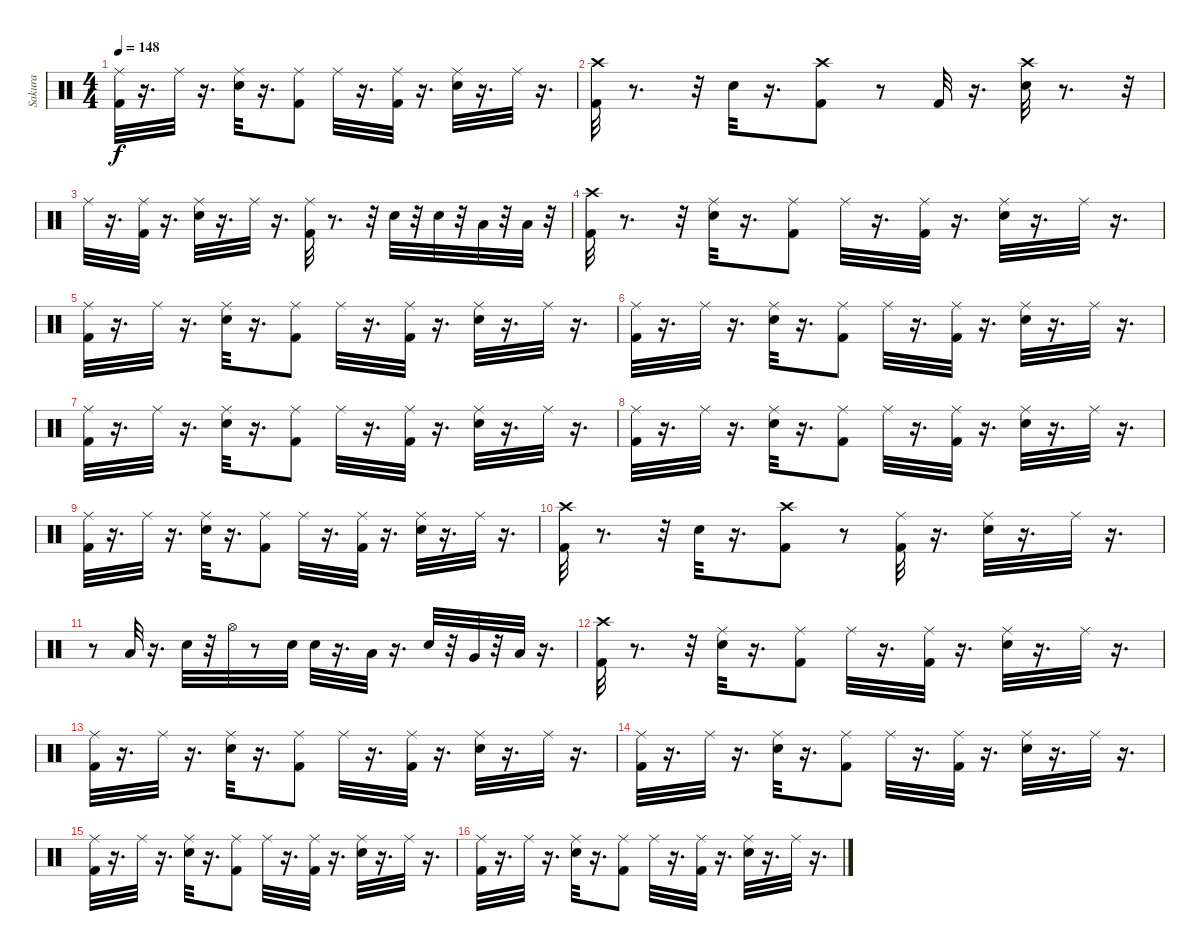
\track ("Sakura" "Sakura") {instrument percussion}
\staff {score}
\articulation defaults
\ts (4 4)
\tempo 148
\clef neutral
\ks c
("Ride (middle)" "Kick (hit) 2").32{dy f} r.16{d} "Ride (middle)".32 r.16{d} ("Snare (hit) 2" "Ride (middle)").32 r.16{d} ("Ride (middle)" "Kick (hit) 2").8 "Ride (middle)".32 r.16{d} ("Kick (hit) 2" "Ride (middle)").32 r.16{d} ("Ride (middle)" "Snare (hit) 2").32 r.16{d} "Ride (middle)".32 r.16{d} |
("Crash high (hit)" "Kick (hit) 2").32 r.8{d} r.32 "Snare (hit) 2".32 r.16{d} ("Crash high (hit)" "Kick (hit) 2").8 r.8 "Kick (hit) 2".32 r.16{d} ("Crash high (hit)" "Snare (hit) 2").32 r.8{d} r.32 |
"Ride (middle)".32 r.16{d} ("Ride (middle)" "Kick (hit) 2").32 r.16{d} ("Ride (middle)" "Snare (hit) 2").32 r.16{d} "Ride (middle)".32 r.16{d} ("Ride (middle)" "Kick (hit) 2").32 r.8{d} r.32 "Snare (hit) 2".32 r.32 "Snare (hit) 2".32 r.32 "Low Tom (hit)".32 r.32 "Low Tom (hit)".32 r.32 |
("Crash high (hit)" "Kick (hit) 2").32 r.8{d} r.32 ("Snare (hit) 2" "Ride (middle)").32 r.16{d} ("Ride (middle)" "Kick (hit) 2").8 "Ride (middle)".32 r.16{d} ("Kick (hit) 2" "Ride (middle)").32 r.16{d} ("Ride (middle)" "Snare (hit) 2").32 r.16{d} "Ride (middle)".32 r.16{d} |
("Ride (middle)" "Kick (hit) 2").32 r.16{d} "Ride (middle)".32 r.16{d} ("Snare (hit) 2" "Ride (middle)").32 r.16{d} ("Ride (middle)" "Kick (hit) 2").8 "Ride (middle)".32 r.16{d} ("Kick (hit) 2" "Ride (middle)").32 r.16{d} ("Ride (middle)" "Snare (hit) 2").32 r.16{d} "Ride (middle)".32 r.16{d} |
("Ride (middle)" "Kick (hit) 2").32 r.16{d} "Ride (middle)".32 r.16{d} ("Snare (hit) 2" "Ride (middle)").32 r.16{d} ("Ride (middle)" "Kick (hit) 2").8 "Ride (middle)".32 r.16{d} ("Kick (hit) 2" "Ride (middle)").32 r.16{d} ("Ride (middle)" "Snare (hit) 2").32 r.16{d} "Ride (middle)".32 r.16{d} |
("Ride (middle)" "Kick (hit) 2").32 r.16{d} "Ride (middle)".32 r.16{d} ("Snare (hit) 2" "Ride (middle)").32 r.16{d} ("Ride (middle)" "Kick (hit) 2").8 "Ride (middle)".32 r.16{d} ("Kick (hit) 2" "Ride (middle)").32 r.16{d} ("Ride (middle)" "Snare (hit) 2").32 r.16{d} "Ride (middle)".32 r.16{d} |
("Ride (middle)" "Kick (hit) 2").32 r.16{d} "Ride (middle)".32 r.16{d} ("Snare (hit) 2" "Ride (middle)").32 r.16{d} ("Ride (middle)" "Kick (hit) 2").8 "Ride (middle)".32 r.16{d} ("Kick (hit) 2" "Ride (middle)").32 r.16{d} ("Ride (middle)" "Snare (hit) 2").32 r.16{d} "Ride (middle)".32 r.16{d} |
("Ride (middle)" "Kick (hit) 2").32 r.16{d} "Ride (middle)".32 r.16{d} ("Snare (hit) 2" "Ride (middle)").32 r.16{d} ("Ride (middle)" "Kick (hit) 2").8 "Ride (middle)".32 r.16{d} ("Kick (hit) 2" "Ride (middle)").32 r.16{d} ("Ride (middle)" "Snare (hit) 2").32 r.16{d} "Ride (middle)".32 r.16{d} |
("Crash high (hit)" "Kick (hit) 2").32 r.8{d} r.32 "Snare (hit) 2".32 r.16{d} ("Crash high (hit)" "Kick (hit) 2").8 r.8 ("Ride (middle)" "Kick (hit) 2").32 r.16{d} ("Ride (middle)" "Snare (hit) 2").32 r.16{d} "Ride (middle)".32 r.16{d} |
r.8 "Low Tom (hit)".32 r.16{d} "Snare (hit) 2".32 r.32 "Hi-Hat (open)".32 r.8 "Snare (hit) 2".32 "Snare (hit) 2".32 r.16{d} "Low Tom (hit)".32 r.16{d} "Snare (hit) 2".32 r.32 "Very Low Tom (hit)".32 r.32 "Low Floor Tom (hit)".32 r.16{d} |
("Crash high (hit)" "Kick (hit) 2").32 r.8{d} r.32 ("Snare (hit) 2" "Ride (middle)").32 r.16{d} ("Ride (middle)" "Kick (hit) 2").8 "Ride (middle)".32 r.16{d} ("Kick (hit) 2" "Ride (middle)").32 r.16{d} ("Ride (middle)" "Snare (hit) 2").32 r.16{d} "Ride (middle)".32 r.16{d} |
("Ride (middle)" "Kick (hit) 2").32 r.16{d} "Ride (middle)".32 r.16{d} ("Snare (hit) 2" "Ride (middle)").32 r.16{d} ("Ride (middle)" "Kick (hit) 2").8 "Ride (middle)".32 r.16{d} ("Kick (hit) 2" "Ride (middle)").32 r.16{d} ("Ride (middle)" "Snare (hit) 2").32 r.16{d} "Ride (middle)".32 r.16{d} |
("Ride (middle)" "Kick (hit) 2").32 r.16{d} "Ride (middle)".32 r.16{d} ("Snare (hit) 2" "Ride (middle)").32 r.16{d} ("Ride (middle)" "Kick (hit) 2").8 "Ride (middle)".32 r.16{d} ("Kick (hit) 2" "Ride (middle)").32 r.16{d} ("Ride (middle)" "Snare (hit) 2").32 r.16{d} "Ride (middle)".32 r.16{d} |
("Ride (middle)" "Kick (hit) 2").32 r.16{d} "Ride (middle)".32 r.16{d} ("Snare (hit) 2" "Ride (middle)").32 r.16{d} ("Ride (middle)" "Kick (hit) 2").8 "Ride (middle)".32 r.16{d} ("Kick (hit) 2" "Ride (middle)").32 r.16{d} ("Ride (middle)" "Snare (hit) 2").32 r.16{d} "Ride (middle)".32 r.16{d} |
("Ride (middle)" "Kick (hit) 2").32 r.16{d} "Ride (middle)".32 r.16{d} ("Snare (hit) 2" "Ride (middle)").32 r.16{d} ("Ride (middle)" "Kick (hit) 2").8 "Ride (middle)".32 r.16{d} ("Kick (hit) 2" "Ride (middle)").32 r.16{d} ("Ride (middle)" "Snare (hit) 2").32 r.16{d} "Ride (middle)".32 r.16{d}
